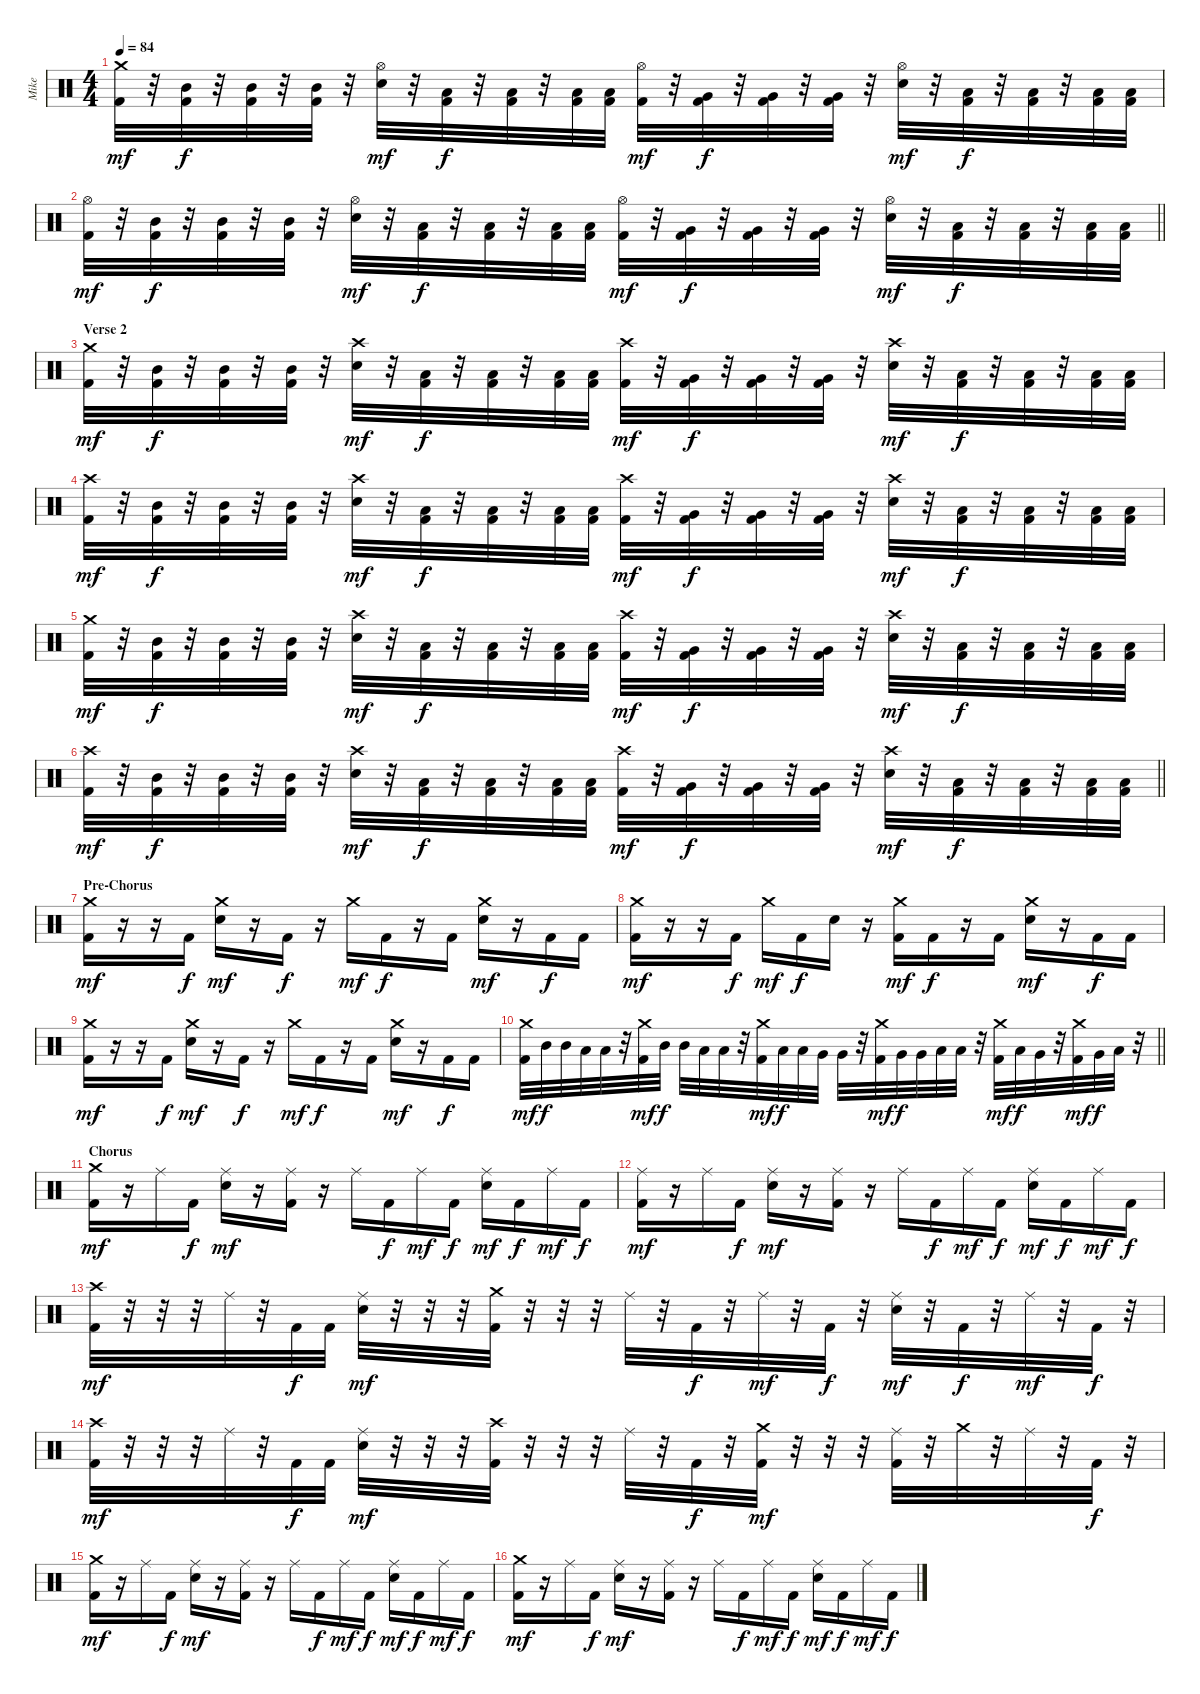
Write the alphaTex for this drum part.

\track ("Mike" "Mike") {instrument percussion}
\staff {score}
\articulation defaults
\ts (4 4)
\tempo 84
\clef neutral
\ks c
("Crash medium (hit)" "Kick (hit) 2").32{dy mf} r.32 ("Mid Tom (hit)" "Kick (hit) 2").32{dy f} r.32 ("Mid Tom (hit)" "Kick (hit) 2").32 r.32 ("Mid Tom (hit)" "Kick (hit) 2").32 r.32 ("Hi-Hat (open)" "Snare (hit) 2").32{dy mf} r.32 ("Low Tom (hit)" "Kick (hit) 2").32{dy f} r.32 ("Low Tom (hit)" "Kick (hit) 2").32 r.32 ("Low Tom (hit)" "Kick (hit) 2").32 ("Low Tom (hit)" "Kick (hit) 2").32 ("Hi-Hat (open)" "Kick (hit) 2").32{dy mf} r.32 ("Very Low Tom (hit)" "Kick (hit) 2").32{dy f} r.32 ("Very Low Tom (hit)" "Kick (hit) 2").32 r.32 ("Very Low Tom (hit)" "Kick (hit) 2").32 r.32 ("Hi-Hat (open)" "Snare (hit) 2").32{dy mf} r.32 ("Low Tom (hit)" "Kick (hit) 2").32{dy f} r.32 ("Low Tom (hit)" "Kick (hit) 2").32 r.32 ("Low Tom (hit)" "Kick (hit) 2").32 ("Low Tom (hit)" "Kick (hit) 2").32 |
\barLineRight lightlight
("Hi-Hat (open)" "Kick (hit) 2").32{dy mf} r.32 ("Mid Tom (hit)" "Kick (hit) 2").32{dy f} r.32 ("Mid Tom (hit)" "Kick (hit) 2").32 r.32 ("Mid Tom (hit)" "Kick (hit) 2").32 r.32 ("Hi-Hat (open)" "Snare (hit) 2").32{dy mf} r.32 ("Low Tom (hit)" "Kick (hit) 2").32{dy f} r.32 ("Low Tom (hit)" "Kick (hit) 2").32 r.32 ("Low Tom (hit)" "Kick (hit) 2").32 ("Low Tom (hit)" "Kick (hit) 2").32 ("Hi-Hat (open)" "Kick (hit) 2").32{dy mf} r.32 ("Very Low Tom (hit)" "Kick (hit) 2").32{dy f} r.32 ("Very Low Tom (hit)" "Kick (hit) 2").32 r.32 ("Very Low Tom (hit)" "Kick (hit) 2").32 r.32 ("Hi-Hat (open)" "Snare (hit) 2").32{dy mf} r.32 ("Low Tom (hit)" "Kick (hit) 2").32{dy f} r.32 ("Low Tom (hit)" "Kick (hit) 2").32 r.32 ("Low Tom (hit)" "Kick (hit) 2").32 ("Low Tom (hit)" "Kick (hit) 2").32 |
\section ("" "Verse 2")
("Crash medium (hit)" "Kick (hit) 2").32{dy mf} r.32 ("Mid Tom (hit)" "Kick (hit) 2").32{dy f} r.32 ("Mid Tom (hit)" "Kick (hit) 2").32 r.32 ("Mid Tom (hit)" "Kick (hit) 2").32 r.32 ("Crash high (hit)" "Snare (hit) 2").32{dy mf} r.32 ("Low Tom (hit)" "Kick (hit) 2").32{dy f} r.32 ("Low Tom (hit)" "Kick (hit) 2").32 r.32 ("Low Tom (hit)" "Kick (hit) 2").32 ("Low Tom (hit)" "Kick (hit) 2").32 ("Crash high (hit)" "Kick (hit) 2").32{dy mf} r.32 ("Very Low Tom (hit)" "Kick (hit) 2").32{dy f} r.32 ("Very Low Tom (hit)" "Kick (hit) 2").32 r.32 ("Very Low Tom (hit)" "Kick (hit) 2").32 r.32 ("Crash high (hit)" "Snare (hit) 2").32{dy mf} r.32 ("Low Tom (hit)" "Kick (hit) 2").32{dy f} r.32 ("Low Tom (hit)" "Kick (hit) 2").32 r.32 ("Low Tom (hit)" "Kick (hit) 2").32 ("Low Tom (hit)" "Kick (hit) 2").32 |
("Crash high (hit)" "Kick (hit) 2").32{dy mf} r.32 ("Mid Tom (hit)" "Kick (hit) 2").32{dy f} r.32 ("Mid Tom (hit)" "Kick (hit) 2").32 r.32 ("Mid Tom (hit)" "Kick (hit) 2").32 r.32 ("Crash high (hit)" "Snare (hit) 2").32{dy mf} r.32 ("Low Tom (hit)" "Kick (hit) 2").32{dy f} r.32 ("Low Tom (hit)" "Kick (hit) 2").32 r.32 ("Low Tom (hit)" "Kick (hit) 2").32 ("Low Tom (hit)" "Kick (hit) 2").32 ("Crash high (hit)" "Kick (hit) 2").32{dy mf} r.32 ("Very Low Tom (hit)" "Kick (hit) 2").32{dy f} r.32 ("Very Low Tom (hit)" "Kick (hit) 2").32 r.32 ("Very Low Tom (hit)" "Kick (hit) 2").32 r.32 ("Crash high (hit)" "Snare (hit) 2").32{dy mf} r.32 ("Low Tom (hit)" "Kick (hit) 2").32{dy f} r.32 ("Low Tom (hit)" "Kick (hit) 2").32 r.32 ("Low Tom (hit)" "Kick (hit) 2").32 ("Low Tom (hit)" "Kick (hit) 2").32 |
("Crash medium (hit)" "Kick (hit) 2").32{dy mf} r.32 ("Mid Tom (hit)" "Kick (hit) 2").32{dy f} r.32 ("Mid Tom (hit)" "Kick (hit) 2").32 r.32 ("Mid Tom (hit)" "Kick (hit) 2").32 r.32 ("Crash high (hit)" "Snare (hit) 2").32{dy mf} r.32 ("Low Tom (hit)" "Kick (hit) 2").32{dy f} r.32 ("Low Tom (hit)" "Kick (hit) 2").32 r.32 ("Low Tom (hit)" "Kick (hit) 2").32 ("Low Tom (hit)" "Kick (hit) 2").32 ("Crash high (hit)" "Kick (hit) 2").32{dy mf} r.32 ("Very Low Tom (hit)" "Kick (hit) 2").32{dy f} r.32 ("Very Low Tom (hit)" "Kick (hit) 2").32 r.32 ("Very Low Tom (hit)" "Kick (hit) 2").32 r.32 ("Crash high (hit)" "Snare (hit) 2").32{dy mf} r.32 ("Low Tom (hit)" "Kick (hit) 2").32{dy f} r.32 ("Low Tom (hit)" "Kick (hit) 2").32 r.32 ("Low Tom (hit)" "Kick (hit) 2").32 ("Low Tom (hit)" "Kick (hit) 2").32 |
\barLineRight lightlight
("Crash high (hit)" "Kick (hit) 2").32{dy mf} r.32 ("Mid Tom (hit)" "Kick (hit) 2").32{dy f} r.32 ("Mid Tom (hit)" "Kick (hit) 2").32 r.32 ("Mid Tom (hit)" "Kick (hit) 2").32 r.32 ("Crash high (hit)" "Snare (hit) 2").32{dy mf} r.32 ("Low Tom (hit)" "Kick (hit) 2").32{dy f} r.32 ("Low Tom (hit)" "Kick (hit) 2").32 r.32 ("Low Tom (hit)" "Kick (hit) 2").32 ("Low Tom (hit)" "Kick (hit) 2").32 ("Crash high (hit)" "Kick (hit) 2").32{dy mf} r.32 ("Very Low Tom (hit)" "Kick (hit) 2").32{dy f} r.32 ("Very Low Tom (hit)" "Kick (hit) 2").32 r.32 ("Very Low Tom (hit)" "Kick (hit) 2").32 r.32 ("Crash high (hit)" "Snare (hit) 2").32{dy mf} r.32 ("Low Tom (hit)" "Kick (hit) 2").32{dy f} r.32 ("Low Tom (hit)" "Kick (hit) 2").32 r.32 ("Low Tom (hit)" "Kick (hit) 2").32 ("Low Tom (hit)" "Kick (hit) 2").32 |
\section ("" "Pre-Chorus")
("Crash medium (hit)" "Kick (hit) 2").16{dy mf} r.16 r.16 "Kick (hit) 2".16{dy f} ("Crash medium (hit)" "Snare (hit) 2").16{dy mf} r.16 "Kick (hit) 2".16{dy f} r.16 "Crash medium (hit)".16{dy mf} "Kick (hit) 2".16{dy f} r.16 "Kick (hit) 2".16 ("Crash medium (hit)" "Snare (hit) 2").16{dy mf} r.16 "Kick (hit) 2".16{dy f} "Kick (hit) 2".16 |
("Crash medium (hit)" "Kick (hit) 2").16{dy mf} r.16 r.16 "Kick (hit) 2".16{dy f} "Crash medium (hit)".16{dy mf} "Kick (hit) 2".16{dy f} "Snare (hit) 2".16 r.16 ("Crash medium (hit)" "Kick (hit) 2").16{dy mf} "Kick (hit) 2".16{dy f} r.16 "Kick (hit) 2".16 ("Crash medium (hit)" "Snare (hit) 2").16{dy mf} r.16 "Kick (hit) 2".16{dy f} "Kick (hit) 2".16 |
("Crash medium (hit)" "Kick (hit) 2").16{dy mf} r.16 r.16 "Kick (hit) 2".16{dy f} ("Crash medium (hit)" "Snare (hit) 2").16{dy mf} r.16 "Kick (hit) 2".16{dy f} r.16 "Crash medium (hit)".16{dy mf} "Kick (hit) 2".16{dy f} r.16 "Kick (hit) 2".16 ("Crash medium (hit)" "Snare (hit) 2").16{dy mf} r.16 "Kick (hit) 2".16{dy f} "Kick (hit) 2".16 |
\barLineRight lightlight
("Crash medium (hit)" "Kick (hit) 2").32{dy mf} "Mid Tom (hit)".32{dy f} "Mid Tom (hit)".32 "Low Tom (hit)".32 "Low Tom (hit)".32 r.32 ("Crash medium (hit)" "Kick (hit) 2").32{dy mf} "Mid Tom (hit)".32{dy f} "Mid Tom (hit)".32 "Low Tom (hit)".32 "Low Tom (hit)".32 r.32 ("Crash medium (hit)" "Kick (hit) 2").32{dy mf} "Low Tom (hit)".32{dy f} "Low Tom (hit)".32 "Very Low Tom (hit)".32 "Very Low Tom (hit)".32 r.32 ("Crash medium (hit)" "Kick (hit) 2").32{dy mf} "Very Low Tom (hit)".32{dy f} "Very Low Tom (hit)".32 "Low Floor Tom (hit)".32 "Low Floor Tom (hit)".32 r.32 ("Crash medium (hit)" "Kick (hit) 2").32{dy mf} "Low Tom (hit)".32{dy f} "Very Low Tom (hit)".32 r.32 ("Crash medium (hit)" "Kick (hit) 2").32{dy mf} "Very Low Tom (hit)".32{dy f} "Low Floor Tom (hit)".32 r.32 |
\section ("" "Chorus")
("Crash medium (hit)" "Kick (hit) 2").16{dy mf} r.16 "Ride (middle)".16 "Kick (hit) 2".16{dy f} ("Ride (middle)" "Snare (hit) 2").16{dy mf} r.16 ("Ride (middle)" "Kick (hit) 2").16 r.16 "Ride (middle)".16 "Kick (hit) 2".16{dy f} "Ride (middle)".16{dy mf} "Kick (hit) 2".16{dy f} ("Ride (middle)" "Snare (hit) 2").16{dy mf} "Kick (hit) 2".16{dy f} "Ride (middle)".16{dy mf} "Kick (hit) 2".16{dy f} |
("Ride (middle)" "Kick (hit) 2").16{dy mf} r.16 "Ride (middle)".16 "Kick (hit) 2".16{dy f} ("Ride (middle)" "Snare (hit) 2").16{dy mf} r.16 ("Ride (middle)" "Kick (hit) 2").16 r.16 "Ride (middle)".16 "Kick (hit) 2".16{dy f} "Ride (middle)".16{dy mf} "Kick (hit) 2".16{dy f} ("Ride (middle)" "Snare (hit) 2").16{dy mf} "Kick (hit) 2".16{dy f} "Ride (middle)".16{dy mf} "Kick (hit) 2".16{dy f} |
("Crash high (hit)" "Kick (hit) 2").32{dy mf} r.32 r.32 r.32 "Ride (middle)".32 r.32 "Kick (hit) 2".32{dy f} "Kick (hit) 2".32 ("Ride (middle)" "Snare (hit) 2").32{dy mf} r.32 r.32 r.32 ("Crash medium (hit)" "Kick (hit) 2").32 r.32 r.32 r.32 "Ride (middle)".32 r.32 "Kick (hit) 2".32{dy f} r.32 "Ride (middle)".32{dy mf} r.32 "Kick (hit) 2".32{dy f} r.32 ("Ride (middle)" "Snare (hit) 2").32{dy mf} r.32 "Kick (hit) 2".32{dy f} r.32 "Ride (middle)".32{dy mf} r.32 "Kick (hit) 2".32{dy f} r.32 |
("Crash high (hit)" "Kick (hit) 2").32{dy mf} r.32 r.32 r.32 "Ride (middle)".32 r.32 "Kick (hit) 2".32{dy f} "Kick (hit) 2".32 ("Ride (middle)" "Snare (hit) 2").32{dy mf} r.32 r.32 r.32 ("Crash high (hit)" "Kick (hit) 2").32 r.32 r.32 r.32 "Ride (middle)".32 r.32 "Kick (hit) 2".32{dy f} r.32 ("Crash medium (hit)" "Kick (hit) 2").32{dy mf} r.32 r.32 r.32 ("Ride (middle)" "Kick (hit) 2").32 r.32 "Crash medium (hit)".32 r.32 "Ride (middle)".32 r.32 "Kick (hit) 2".32{dy f} r.32 |
("Crash medium (hit)" "Kick (hit) 2").16{dy mf} r.16 "Ride (middle)".16 "Kick (hit) 2".16{dy f} ("Ride (middle)" "Snare (hit) 2").16{dy mf} r.16 ("Ride (middle)" "Kick (hit) 2").16 r.16 "Ride (middle)".16 "Kick (hit) 2".16{dy f} "Ride (middle)".16{dy mf} "Kick (hit) 2".16{dy f} ("Ride (middle)" "Snare (hit) 2").16{dy mf} "Kick (hit) 2".16{dy f} "Ride (middle)".16{dy mf} "Kick (hit) 2".16{dy f} |
("Crash medium (hit)" "Kick (hit) 2").16{dy mf} r.16 "Ride (middle)".16 "Kick (hit) 2".16{dy f} ("Ride (middle)" "Snare (hit) 2").16{dy mf} r.16 ("Ride (middle)" "Kick (hit) 2").16 r.16 "Ride (middle)".16 "Kick (hit) 2".16{dy f} "Ride (middle)".16{dy mf} "Kick (hit) 2".16{dy f} ("Ride (middle)" "Snare (hit) 2").16{dy mf} "Kick (hit) 2".16{dy f} "Ride (middle)".16{dy mf} "Kick (hit) 2".16{dy f}
